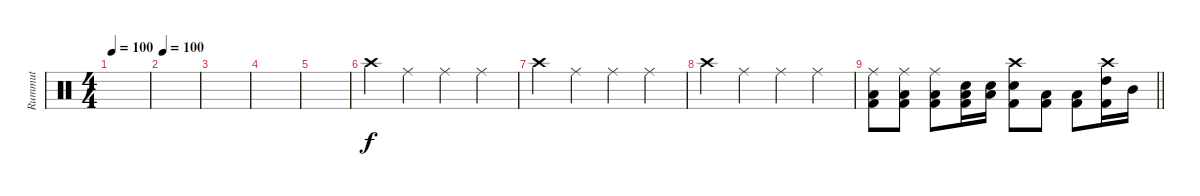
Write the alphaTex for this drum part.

\track ("Rummut" "Rummut") {instrument percussion}
\staff {score}
\articulation defaults
\ts (4 4)
\tempo 100
\clef neutral
\ks c
|
\tempo 100
|
|
|
|
"Crash high (hit)".4 "Ride (middle)".4 "Ride (middle)".4 "Ride (middle)".4 |
"Crash high (hit)".4 "Ride (middle)".4 "Ride (middle)".4 "Ride (middle)".4 |
"Crash high (hit)".4 "Ride (middle)".4 "Ride (middle)".4 "Ride (middle)".4 |
\barLineRight lightlight
("Ride (middle)" "Low Floor Tom (hit)" "Kick (hit) 2").8 ("Ride (middle)" "Low Floor Tom (hit)" "Kick (hit) 2").8 ("Ride (middle)" "Low Floor Tom (hit)" "Kick (hit) 2").8 ("Snare (hit) 2" "Low Floor Tom (hit)" "Kick (hit) 2").16 ("Snare (hit) 2" "Low Floor Tom (hit)").16 ("Crash high (hit)" "Snare (hit) 2" "Kick (hit) 2").8 ("Low Floor Tom (hit)" "Kick (hit) 2").8 ("Low Floor Tom (hit)" "Kick (hit) 2").8 ("Crash high (hit)" "High Tom (hit)" "Kick (hit) 2").16 "Mid Tom (hit)".16
